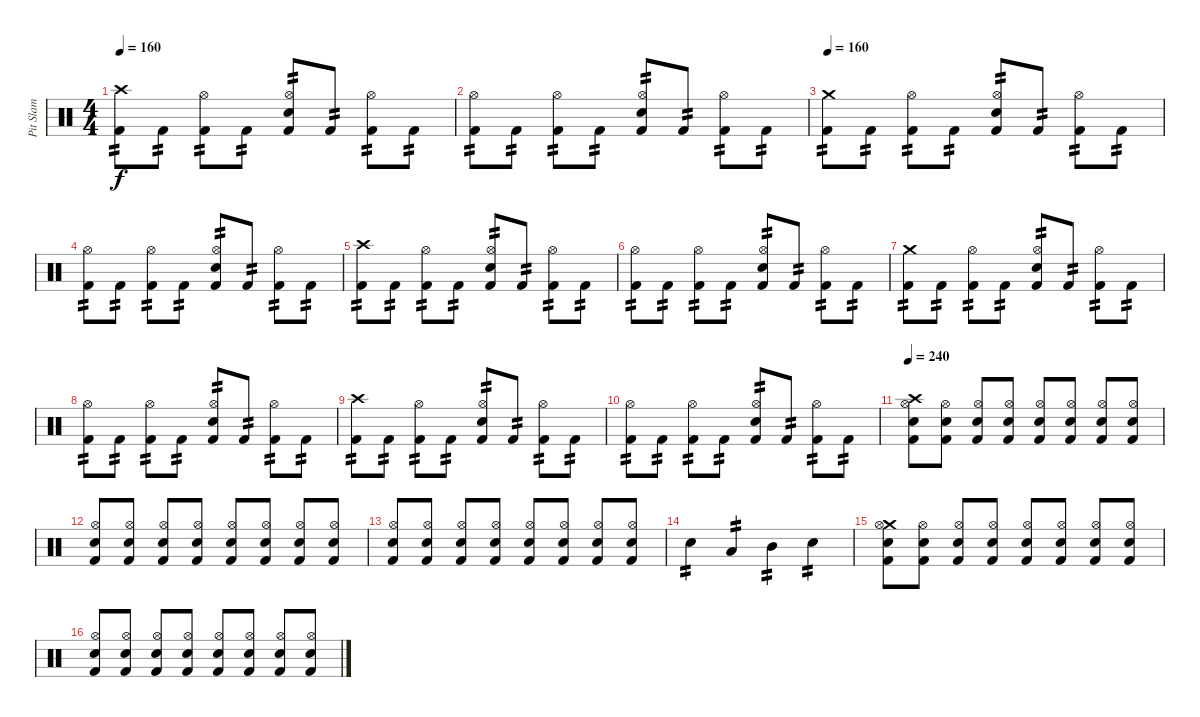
\track ("Pit Slam" "Pit Slam") {instrument percussion}
\staff {score}
\articulation defaults
\ts (4 4)
\tempo 160
\clef neutral
\ks c
("Crash high (hit)" "Kick (hit) 2").8{tp 2 dy f} "Kick (hit) 2".8{tp 2} ("Hi-Hat (open)" "Kick (hit) 2").8{tp 2} "Kick (hit) 2".8{tp 2} ("Hi-Hat (open)" "Electric Snare (hit)" "Kick (hit) 2").8{tp 2} "Kick (hit) 2".8{tp 2} ("Hi-Hat (open)" "Kick (hit) 2").8{tp 2} "Kick (hit) 2".8{tp 2} |
("Hi-Hat (open)" "Kick (hit) 2").8{tp 2} "Kick (hit) 2".8{tp 2} ("Hi-Hat (open)" "Kick (hit) 2").8{tp 2} "Kick (hit) 2".8{tp 2} ("Hi-Hat (open)" "Electric Snare (hit)" "Kick (hit) 2").8{tp 2} "Kick (hit) 2".8{tp 2} ("Hi-Hat (open)" "Kick (hit) 2").8{tp 2} "Kick (hit) 2".8{tp 2} |
\tempo 160
("Crash medium (hit)" "Kick (hit) 2").8{tp 2} "Kick (hit) 2".8{tp 2} ("Hi-Hat (open)" "Kick (hit) 2").8{tp 2} "Kick (hit) 2".8{tp 2} ("Hi-Hat (open)" "Electric Snare (hit)" "Kick (hit) 2").8{tp 2} "Kick (hit) 2".8{tp 2} ("Hi-Hat (open)" "Kick (hit) 2").8{tp 2} "Kick (hit) 2".8{tp 2} |
("Hi-Hat (open)" "Kick (hit) 2").8{tp 2} "Kick (hit) 2".8{tp 2} ("Hi-Hat (open)" "Kick (hit) 2").8{tp 2} "Kick (hit) 2".8{tp 2} ("Hi-Hat (open)" "Electric Snare (hit)" "Kick (hit) 2").8{tp 2} "Kick (hit) 2".8{tp 2} ("Hi-Hat (open)" "Kick (hit) 2").8{tp 2} "Kick (hit) 2".8{tp 2} |
("Crash high (hit)" "Kick (hit) 2").8{tp 2} "Kick (hit) 2".8{tp 2} ("Hi-Hat (open)" "Kick (hit) 2").8{tp 2} "Kick (hit) 2".8{tp 2} ("Hi-Hat (open)" "Electric Snare (hit)" "Kick (hit) 2").8{tp 2} "Kick (hit) 2".8{tp 2} ("Hi-Hat (open)" "Kick (hit) 2").8{tp 2} "Kick (hit) 2".8{tp 2} |
("Hi-Hat (open)" "Kick (hit) 2").8{tp 2} "Kick (hit) 2".8{tp 2} ("Hi-Hat (open)" "Kick (hit) 2").8{tp 2} "Kick (hit) 2".8{tp 2} ("Hi-Hat (open)" "Electric Snare (hit)" "Kick (hit) 2").8{tp 2} "Kick (hit) 2".8{tp 2} ("Hi-Hat (open)" "Kick (hit) 2").8{tp 2} "Kick (hit) 2".8{tp 2} |
("Crash medium (hit)" "Kick (hit) 2").8{tp 2} "Kick (hit) 2".8{tp 2} ("Hi-Hat (open)" "Kick (hit) 2").8{tp 2} "Kick (hit) 2".8{tp 2} ("Hi-Hat (open)" "Electric Snare (hit)" "Kick (hit) 2").8{tp 2} "Kick (hit) 2".8{tp 2} ("Hi-Hat (open)" "Kick (hit) 2").8{tp 2} "Kick (hit) 2".8{tp 2} |
("Hi-Hat (open)" "Kick (hit) 2").8{tp 2} "Kick (hit) 2".8{tp 2} ("Hi-Hat (open)" "Kick (hit) 2").8{tp 2} "Kick (hit) 2".8{tp 2} ("Hi-Hat (open)" "Electric Snare (hit)" "Kick (hit) 2").8{tp 2} "Kick (hit) 2".8{tp 2} ("Hi-Hat (open)" "Kick (hit) 2").8{tp 2} "Kick (hit) 2".8{tp 2} |
("Crash high (hit)" "Kick (hit) 2").8{tp 2} "Kick (hit) 2".8{tp 2} ("Hi-Hat (open)" "Kick (hit) 2").8{tp 2} "Kick (hit) 2".8{tp 2} ("Hi-Hat (open)" "Electric Snare (hit)" "Kick (hit) 2").8{tp 2} "Kick (hit) 2".8{tp 2} ("Hi-Hat (open)" "Kick (hit) 2").8{tp 2} "Kick (hit) 2".8{tp 2} |
("Hi-Hat (open)" "Kick (hit) 2").8{tp 2} "Kick (hit) 2".8{tp 2} ("Hi-Hat (open)" "Kick (hit) 2").8{tp 2} "Kick (hit) 2".8{tp 2} ("Hi-Hat (open)" "Electric Snare (hit)" "Kick (hit) 2").8{tp 2} "Kick (hit) 2".8{tp 2} ("Hi-Hat (open)" "Kick (hit) 2").8{tp 2} "Kick (hit) 2".8{tp 2} |
\tempo 240
("Crash high (hit)" "Hi-Hat (open)" "Electric Snare (hit)" "Kick (hit) 2").8 ("Hi-Hat (open)" "Electric Snare (hit)" "Kick (hit) 2").8 ("Hi-Hat (open)" "Electric Snare (hit)" "Kick (hit) 2").8 ("Hi-Hat (open)" "Electric Snare (hit)" "Kick (hit) 2").8 ("Hi-Hat (open)" "Electric Snare (hit)" "Kick (hit) 2").8 ("Hi-Hat (open)" "Electric Snare (hit)" "Kick (hit) 2").8 ("Hi-Hat (open)" "Electric Snare (hit)" "Kick (hit) 2").8 ("Hi-Hat (open)" "Electric Snare (hit)" "Kick (hit) 2").8 |
("Hi-Hat (open)" "Electric Snare (hit)" "Kick (hit) 2").8 ("Hi-Hat (open)" "Electric Snare (hit)" "Kick (hit) 2").8 ("Hi-Hat (open)" "Electric Snare (hit)" "Kick (hit) 2").8 ("Hi-Hat (open)" "Electric Snare (hit)" "Kick (hit) 2").8 ("Hi-Hat (open)" "Electric Snare (hit)" "Kick (hit) 2").8 ("Hi-Hat (open)" "Electric Snare (hit)" "Kick (hit) 2").8 ("Hi-Hat (open)" "Electric Snare (hit)" "Kick (hit) 2").8 ("Hi-Hat (open)" "Electric Snare (hit)" "Kick (hit) 2").8 |
("Hi-Hat (open)" "Electric Snare (hit)" "Kick (hit) 2").8 ("Hi-Hat (open)" "Electric Snare (hit)" "Kick (hit) 2").8 ("Hi-Hat (open)" "Electric Snare (hit)" "Kick (hit) 2").8 ("Hi-Hat (open)" "Electric Snare (hit)" "Kick (hit) 2").8 ("Hi-Hat (open)" "Electric Snare (hit)" "Kick (hit) 2").8 ("Hi-Hat (open)" "Electric Snare (hit)" "Kick (hit) 2").8 ("Hi-Hat (open)" "Electric Snare (hit)" "Kick (hit) 2").8 ("Hi-Hat (open)" "Electric Snare (hit)" "Kick (hit) 2").8 |
"Electric Snare (hit)".4{tp 2} "Low Tom (hit)".4{tp 2} "Mid Tom (hit)".4{tp 2} "Electric Snare (hit)".4{tp 2} |
("Crash medium (hit)" "Hi-Hat (open)" "Electric Snare (hit)" "Kick (hit) 2").8 ("Hi-Hat (open)" "Electric Snare (hit)" "Kick (hit) 2").8 ("Hi-Hat (open)" "Electric Snare (hit)" "Kick (hit) 2").8 ("Hi-Hat (open)" "Electric Snare (hit)" "Kick (hit) 2").8 ("Hi-Hat (open)" "Electric Snare (hit)" "Kick (hit) 2").8 ("Hi-Hat (open)" "Electric Snare (hit)" "Kick (hit) 2").8 ("Hi-Hat (open)" "Electric Snare (hit)" "Kick (hit) 2").8 ("Hi-Hat (open)" "Electric Snare (hit)" "Kick (hit) 2").8 |
("Hi-Hat (open)" "Electric Snare (hit)" "Kick (hit) 2").8 ("Hi-Hat (open)" "Electric Snare (hit)" "Kick (hit) 2").8 ("Hi-Hat (open)" "Electric Snare (hit)" "Kick (hit) 2").8 ("Hi-Hat (open)" "Electric Snare (hit)" "Kick (hit) 2").8 ("Hi-Hat (open)" "Electric Snare (hit)" "Kick (hit) 2").8 ("Hi-Hat (open)" "Electric Snare (hit)" "Kick (hit) 2").8 ("Hi-Hat (open)" "Electric Snare (hit)" "Kick (hit) 2").8 ("Hi-Hat (open)" "Electric Snare (hit)" "Kick (hit) 2").8
